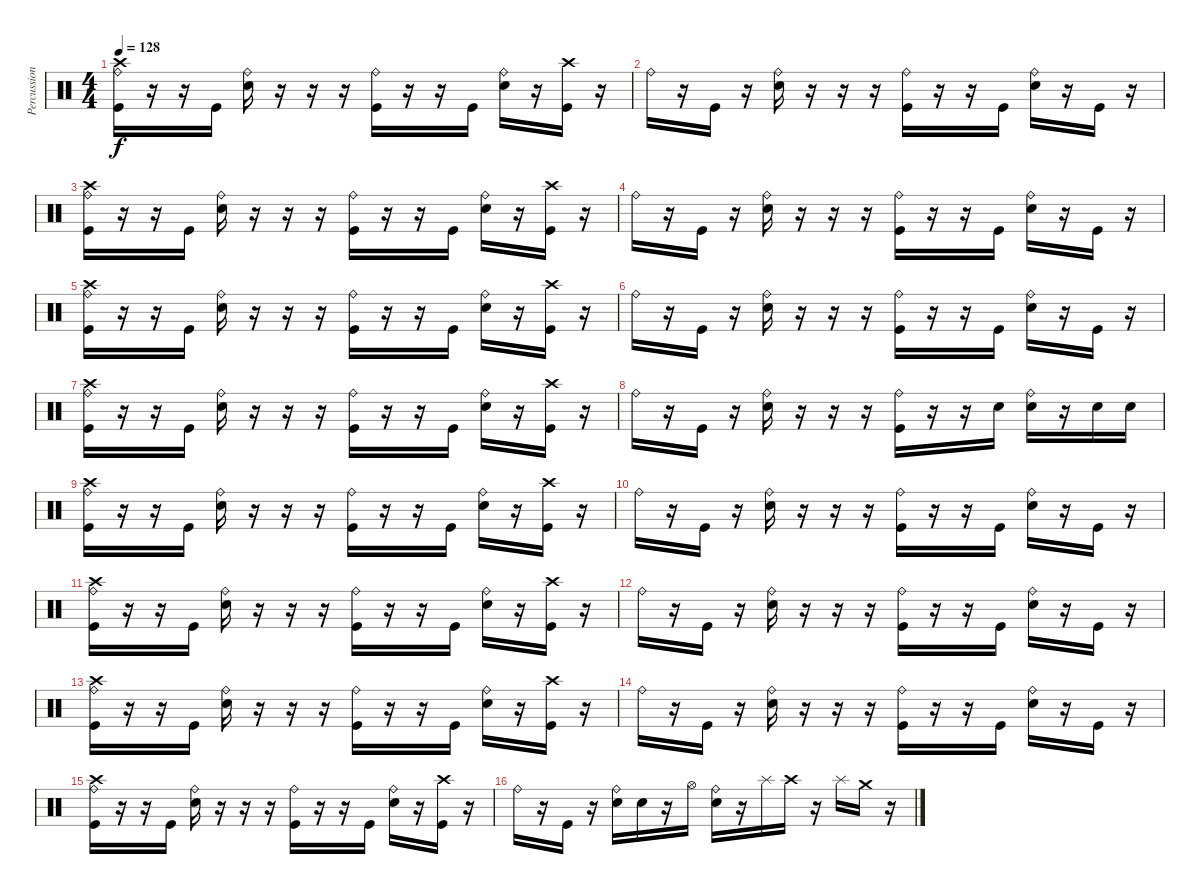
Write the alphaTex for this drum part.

\track ("Percussion" "Percussion") {instrument percussion bank 177}
\staff {score}
\articulation defaults
\ts (4 4)
\tempo 128
\clef neutral
\ks c
("Crash high (hit)" "Ride (bell)" "Kick (hit)").16{dy f} r.16 r.16 "Kick (hit)".16 ("Ride (bell)" "Electric Snare (hit)").16 r.16 r.16 r.16 ("Ride (bell)" "Kick (hit)").16 r.16 r.16 "Kick (hit)".16 ("Ride (bell)" "Electric Snare (hit)").16 r.16 ("Crash high (hit)" "Kick (hit)").16 r.16 |
"Ride (bell)".16 r.16 "Kick (hit)".16 r.16 ("Ride (bell)" "Electric Snare (hit)").16 r.16 r.16 r.16 ("Ride (bell)" "Kick (hit)").16 r.16 r.16 "Kick (hit)".16 ("Ride (bell)" "Electric Snare (hit)").16 r.16 "Kick (hit)".16 r.16 |
("Crash high (hit)" "Ride (bell)" "Kick (hit)").16 r.16 r.16 "Kick (hit)".16 ("Ride (bell)" "Electric Snare (hit)").16 r.16 r.16 r.16 ("Ride (bell)" "Kick (hit)").16 r.16 r.16 "Kick (hit)".16 ("Ride (bell)" "Electric Snare (hit)").16 r.16 ("Crash high (hit)" "Kick (hit)").16 r.16 |
"Ride (bell)".16 r.16 "Kick (hit)".16 r.16 ("Ride (bell)" "Electric Snare (hit)").16 r.16 r.16 r.16 ("Ride (bell)" "Kick (hit)").16 r.16 r.16 "Kick (hit)".16 ("Ride (bell)" "Electric Snare (hit)").16 r.16 "Kick (hit)".16 r.16 |
("Crash high (hit)" "Ride (bell)" "Kick (hit)").16 r.16 r.16 "Kick (hit)".16 ("Ride (bell)" "Electric Snare (hit)").16 r.16 r.16 r.16 ("Ride (bell)" "Kick (hit)").16 r.16 r.16 "Kick (hit)".16 ("Ride (bell)" "Electric Snare (hit)").16 r.16 ("Crash high (hit)" "Kick (hit)").16 r.16 |
"Ride (bell)".16 r.16 "Kick (hit)".16 r.16 ("Ride (bell)" "Electric Snare (hit)").16 r.16 r.16 r.16 ("Ride (bell)" "Kick (hit)").16 r.16 r.16 "Kick (hit)".16 ("Ride (bell)" "Electric Snare (hit)").16 r.16 "Kick (hit)".16 r.16 |
("Crash high (hit)" "Ride (bell)" "Kick (hit)").16 r.16 r.16 "Kick (hit)".16 ("Ride (bell)" "Electric Snare (hit)").16 r.16 r.16 r.16 ("Ride (bell)" "Kick (hit)").16 r.16 r.16 "Kick (hit)".16 ("Ride (bell)" "Electric Snare (hit)").16 r.16 ("Crash high (hit)" "Kick (hit)").16 r.16 |
"Ride (bell)".16 r.16 "Kick (hit)".16 r.16 ("Ride (bell)" "Electric Snare (hit)").16 r.16 r.16 r.16 ("Ride (bell)" "Kick (hit)").16 r.16 r.16 "Electric Snare (hit)".16 ("Ride (bell)" "Electric Snare (hit)").16 r.16 "Electric Snare (hit)".16 "Electric Snare (hit)".16 |
("Crash high (hit)" "Ride (bell)" "Kick (hit)").16 r.16 r.16 "Kick (hit)".16 ("Ride (bell)" "Electric Snare (hit)").16 r.16 r.16 r.16 ("Ride (bell)" "Kick (hit)").16 r.16 r.16 "Kick (hit)".16 ("Ride (bell)" "Electric Snare (hit)").16 r.16 ("Crash high (hit)" "Kick (hit)").16 r.16 |
"Ride (bell)".16 r.16 "Kick (hit)".16 r.16 ("Ride (bell)" "Electric Snare (hit)").16 r.16 r.16 r.16 ("Ride (bell)" "Kick (hit)").16 r.16 r.16 "Kick (hit)".16 ("Ride (bell)" "Electric Snare (hit)").16 r.16 "Kick (hit)".16 r.16 |
("Crash high (hit)" "Ride (bell)" "Kick (hit)").16 r.16 r.16 "Kick (hit)".16 ("Ride (bell)" "Electric Snare (hit)").16 r.16 r.16 r.16 ("Ride (bell)" "Kick (hit)").16 r.16 r.16 "Kick (hit)".16 ("Ride (bell)" "Electric Snare (hit)").16 r.16 ("Crash high (hit)" "Kick (hit)").16 r.16 |
"Ride (bell)".16 r.16 "Kick (hit)".16 r.16 ("Ride (bell)" "Electric Snare (hit)").16 r.16 r.16 r.16 ("Ride (bell)" "Kick (hit)").16 r.16 r.16 "Kick (hit)".16 ("Ride (bell)" "Electric Snare (hit)").16 r.16 "Kick (hit)".16 r.16 |
("Crash high (hit)" "Ride (bell)" "Kick (hit)").16 r.16 r.16 "Kick (hit)".16 ("Ride (bell)" "Electric Snare (hit)").16 r.16 r.16 r.16 ("Ride (bell)" "Kick (hit)").16 r.16 r.16 "Kick (hit)".16 ("Ride (bell)" "Electric Snare (hit)").16 r.16 ("Crash high (hit)" "Kick (hit)").16 r.16 |
"Ride (bell)".16 r.16 "Kick (hit)".16 r.16 ("Ride (bell)" "Electric Snare (hit)").16 r.16 r.16 r.16 ("Ride (bell)" "Kick (hit)").16 r.16 r.16 "Kick (hit)".16 ("Ride (bell)" "Electric Snare (hit)").16 r.16 "Kick (hit)".16 r.16 |
("Crash high (hit)" "Ride (bell)" "Kick (hit)").16 r.16 r.16 "Kick (hit)".16 ("Ride (bell)" "Electric Snare (hit)").16 r.16 r.16 r.16 ("Ride (bell)" "Kick (hit)").16 r.16 r.16 "Kick (hit)".16 ("Ride (bell)" "Electric Snare (hit)").16 r.16 ("Crash high (hit)" "Kick (hit)").16 r.16 |
"Ride (bell)".16 r.16 "Kick (hit)".16 r.16 ("Ride (bell)" "Electric Snare (hit)").16 "Electric Snare (hit)".16 r.16 "Hi-Hat (open)".16 ("Ride (bell)" "Electric Snare (hit)").16 r.16 "Splash (hit)".16 "Crash high (hit)".16 r.16 "Splash (hit)".16 "Crash medium (hit)".16 r.16
